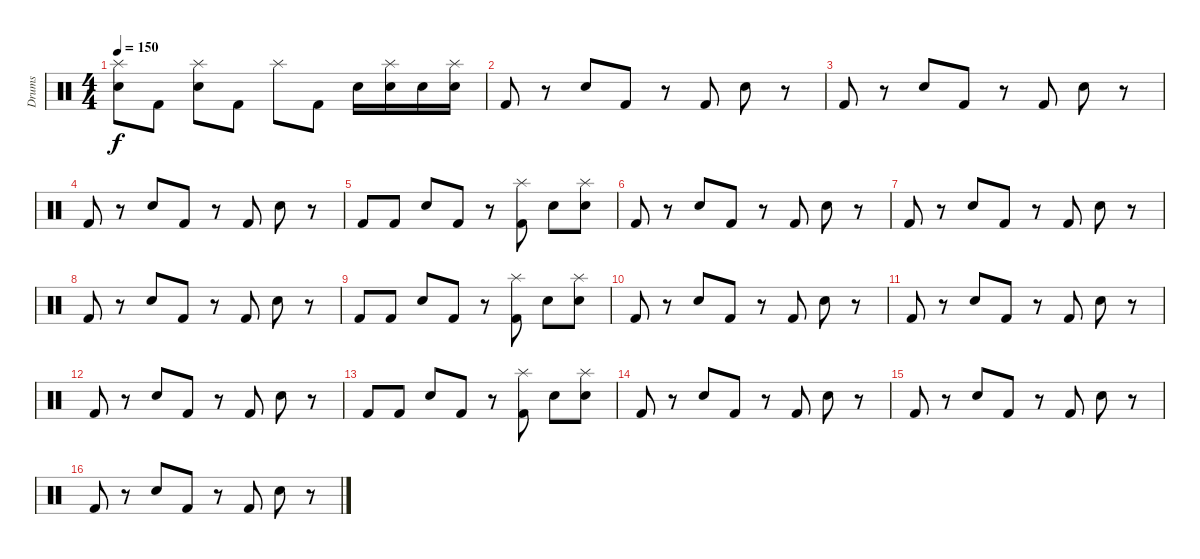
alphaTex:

\track ("Drums" "Drums") {instrument percussion}
\staff {score}
\articulation defaults
\ts (4 4)
\tempo 150
\clef neutral
\ks c
("Splash (hit)" "Snare (hit) 2").8{dy f} "Kick (hit) 2".8 ("Splash (hit)" "Snare (hit) 2").8 "Kick (hit) 2".8 "Splash (hit)".8 "Kick (hit) 2".8 "Snare (hit) 2".16 ("Splash (hit)" "Snare (hit) 2").16 "Snare (hit) 2".16 ("Splash (hit)" "Snare (hit) 2").16 |
"Kick (hit) 2".8 r.8 "Snare (hit) 2".8 "Kick (hit) 2".8 r.8 "Kick (hit) 2".8 "Snare (hit) 2".8 r.8 |
"Kick (hit) 2".8 r.8 "Snare (hit) 2".8 "Kick (hit) 2".8 r.8 "Kick (hit) 2".8 "Snare (hit) 2".8 r.8 |
"Kick (hit) 2".8 r.8 "Snare (hit) 2".8 "Kick (hit) 2".8 r.8 "Kick (hit) 2".8 "Snare (hit) 2".8 r.8 |
"Kick (hit) 2".8 "Kick (hit) 2".8 "Snare (hit) 2".8 "Kick (hit) 2".8 r.8 ("Splash (hit)" "Kick (hit) 2").8 "Snare (hit) 2".8 ("Splash (hit)" "Snare (hit) 2").8 |
"Kick (hit) 2".8 r.8 "Snare (hit) 2".8 "Kick (hit) 2".8 r.8 "Kick (hit) 2".8 "Snare (hit) 2".8 r.8 |
"Kick (hit) 2".8 r.8 "Snare (hit) 2".8 "Kick (hit) 2".8 r.8 "Kick (hit) 2".8 "Snare (hit) 2".8 r.8 |
"Kick (hit) 2".8 r.8 "Snare (hit) 2".8 "Kick (hit) 2".8 r.8 "Kick (hit) 2".8 "Snare (hit) 2".8 r.8 |
"Kick (hit) 2".8 "Kick (hit) 2".8 "Snare (hit) 2".8 "Kick (hit) 2".8 r.8 ("Splash (hit)" "Kick (hit) 2").8 "Snare (hit) 2".8 ("Splash (hit)" "Snare (hit) 2").8 |
"Kick (hit) 2".8 r.8 "Snare (hit) 2".8 "Kick (hit) 2".8 r.8 "Kick (hit) 2".8 "Snare (hit) 2".8 r.8 |
"Kick (hit) 2".8 r.8 "Snare (hit) 2".8 "Kick (hit) 2".8 r.8 "Kick (hit) 2".8 "Snare (hit) 2".8 r.8 |
"Kick (hit) 2".8 r.8 "Snare (hit) 2".8 "Kick (hit) 2".8 r.8 "Kick (hit) 2".8 "Snare (hit) 2".8 r.8 |
"Kick (hit) 2".8 "Kick (hit) 2".8 "Snare (hit) 2".8 "Kick (hit) 2".8 r.8 ("Splash (hit)" "Kick (hit) 2").8 "Snare (hit) 2".8 ("Splash (hit)" "Snare (hit) 2").8 |
"Kick (hit) 2".8 r.8 "Snare (hit) 2".8 "Kick (hit) 2".8 r.8 "Kick (hit) 2".8 "Snare (hit) 2".8 r.8 |
"Kick (hit) 2".8 r.8 "Snare (hit) 2".8 "Kick (hit) 2".8 r.8 "Kick (hit) 2".8 "Snare (hit) 2".8 r.8 |
"Kick (hit) 2".8 r.8 "Snare (hit) 2".8 "Kick (hit) 2".8 r.8 "Kick (hit) 2".8 "Snare (hit) 2".8 r.8
